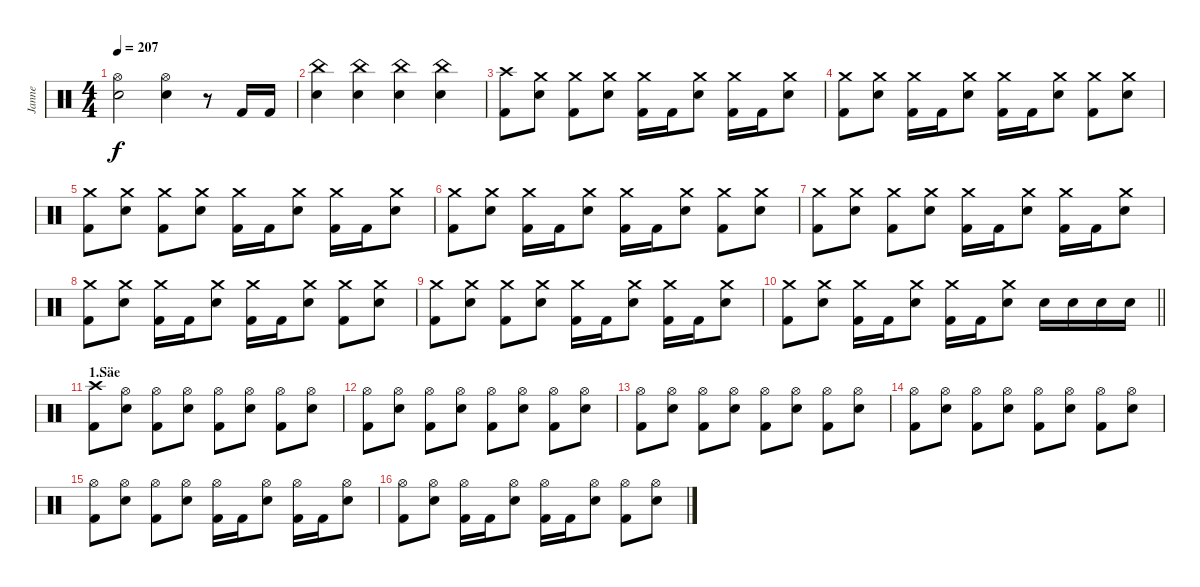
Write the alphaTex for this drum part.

\track ("Janne" "Janne") {instrument percussion}
\staff {score}
\articulation defaults
\ts (4 4)
\tempo 207
\clef neutral
\ks c
("Hi-Hat (open)" "Electric Snare (hit)").2{dy f} ("Hi-Hat (open)" "Electric Snare (hit)").4 r.8 "Kick (hit) 2".16 "Kick (hit) 2".16 |
("China (hit)" "Electric Snare (hit)").4 ("China (hit)" "Electric Snare (hit)").4 ("China (hit)" "Electric Snare (hit)").4 ("China (hit)" "Electric Snare (hit)").4 |
("Crash high (hit)" "Kick (hit) 2").8 ("Crash medium (hit)" "Electric Snare (hit)").8 ("Crash medium (hit)" "Kick (hit) 2").8 ("Crash medium (hit)" "Electric Snare (hit)").8 ("Crash medium (hit)" "Kick (hit) 2").16 "Kick (hit) 2".16 ("Crash medium (hit)" "Electric Snare (hit)").8 ("Crash medium (hit)" "Kick (hit) 2").16 "Kick (hit) 2".16 ("Crash medium (hit)" "Electric Snare (hit)").8 |
("Crash medium (hit)" "Kick (hit) 2").8 ("Crash medium (hit)" "Electric Snare (hit)").8 ("Crash medium (hit)" "Kick (hit) 2").16 "Kick (hit) 2".16 ("Crash medium (hit)" "Electric Snare (hit)").8 ("Crash medium (hit)" "Kick (hit) 2").16 "Kick (hit) 2".16 ("Crash medium (hit)" "Electric Snare (hit)").8 ("Crash medium (hit)" "Kick (hit) 2").8 ("Crash medium (hit)" "Electric Snare (hit)").8 |
("Crash medium (hit)" "Kick (hit) 2").8 ("Crash medium (hit)" "Electric Snare (hit)").8 ("Crash medium (hit)" "Kick (hit) 2").8 ("Crash medium (hit)" "Electric Snare (hit)").8 ("Crash medium (hit)" "Kick (hit) 2").16 "Kick (hit) 2".16 ("Crash medium (hit)" "Electric Snare (hit)").8 ("Crash medium (hit)" "Kick (hit) 2").16 "Kick (hit) 2".16 ("Crash medium (hit)" "Electric Snare (hit)").8 |
("Crash medium (hit)" "Kick (hit) 2").8 ("Crash medium (hit)" "Electric Snare (hit)").8 ("Crash medium (hit)" "Kick (hit) 2").16 "Kick (hit) 2".16 ("Crash medium (hit)" "Electric Snare (hit)").8 ("Crash medium (hit)" "Kick (hit) 2").16 "Kick (hit) 2".16 ("Crash medium (hit)" "Electric Snare (hit)").8 ("Crash medium (hit)" "Kick (hit) 2").8 ("Crash medium (hit)" "Electric Snare (hit)").8 |
("Crash medium (hit)" "Kick (hit) 2").8 ("Crash medium (hit)" "Electric Snare (hit)").8 ("Crash medium (hit)" "Kick (hit) 2").8 ("Crash medium (hit)" "Electric Snare (hit)").8 ("Crash medium (hit)" "Kick (hit) 2").16 "Kick (hit) 2".16 ("Crash medium (hit)" "Electric Snare (hit)").8 ("Crash medium (hit)" "Kick (hit) 2").16 "Kick (hit) 2".16 ("Crash medium (hit)" "Electric Snare (hit)").8 |
("Crash medium (hit)" "Kick (hit) 2").8 ("Crash medium (hit)" "Electric Snare (hit)").8 ("Crash medium (hit)" "Kick (hit) 2").16 "Kick (hit) 2".16 ("Crash medium (hit)" "Electric Snare (hit)").8 ("Crash medium (hit)" "Kick (hit) 2").16 "Kick (hit) 2".16 ("Crash medium (hit)" "Electric Snare (hit)").8 ("Crash medium (hit)" "Kick (hit) 2").8 ("Crash medium (hit)" "Electric Snare (hit)").8 |
("Crash medium (hit)" "Kick (hit) 2").8 ("Crash medium (hit)" "Electric Snare (hit)").8 ("Crash medium (hit)" "Kick (hit) 2").8 ("Crash medium (hit)" "Electric Snare (hit)").8 ("Crash medium (hit)" "Kick (hit) 2").16 "Kick (hit) 2".16 ("Crash medium (hit)" "Electric Snare (hit)").8 ("Crash medium (hit)" "Kick (hit) 2").16 "Kick (hit) 2".16 ("Crash medium (hit)" "Electric Snare (hit)").8 |
\barLineRight lightlight
("Crash medium (hit)" "Kick (hit) 2").8 ("Crash medium (hit)" "Electric Snare (hit)").8 ("Crash medium (hit)" "Kick (hit) 2").16 "Kick (hit) 2".16 ("Crash medium (hit)" "Electric Snare (hit)").8 ("Crash medium (hit)" "Kick (hit) 2").16 "Kick (hit) 2".16 ("Crash medium (hit)" "Electric Snare (hit)").8 "Electric Snare (hit)".16 "Electric Snare (hit)".16 "Electric Snare (hit)".16 "Electric Snare (hit)".16 |
\section ("" "1.Säe")
("Crash high (hit)" "Kick (hit) 2").8 ("Hi-Hat (open)" "Electric Snare (hit)").8 ("Hi-Hat (open)" "Kick (hit) 2").8 ("Hi-Hat (open)" "Electric Snare (hit)").8 ("Hi-Hat (open)" "Kick (hit) 2").8 ("Hi-Hat (open)" "Electric Snare (hit)").8 ("Hi-Hat (open)" "Kick (hit) 2").8 ("Hi-Hat (open)" "Electric Snare (hit)").8 |
("Hi-Hat (open)" "Kick (hit) 2").8 ("Hi-Hat (open)" "Electric Snare (hit)").8 ("Hi-Hat (open)" "Kick (hit) 2").8 ("Hi-Hat (open)" "Electric Snare (hit)").8 ("Hi-Hat (open)" "Kick (hit) 2").8 ("Hi-Hat (open)" "Electric Snare (hit)").8 ("Hi-Hat (open)" "Kick (hit) 2").8 ("Hi-Hat (open)" "Electric Snare (hit)").8 |
("Hi-Hat (open)" "Kick (hit) 2").8 ("Hi-Hat (open)" "Electric Snare (hit)").8 ("Hi-Hat (open)" "Kick (hit) 2").8 ("Hi-Hat (open)" "Electric Snare (hit)").8 ("Hi-Hat (open)" "Kick (hit) 2").8 ("Hi-Hat (open)" "Electric Snare (hit)").8 ("Hi-Hat (open)" "Kick (hit) 2").8 ("Hi-Hat (open)" "Electric Snare (hit)").8 |
("Hi-Hat (open)" "Kick (hit) 2").8 ("Hi-Hat (open)" "Electric Snare (hit)").8 ("Hi-Hat (open)" "Kick (hit) 2").8 ("Hi-Hat (open)" "Electric Snare (hit)").8 ("Hi-Hat (open)" "Kick (hit) 2").8 ("Hi-Hat (open)" "Electric Snare (hit)").8 ("Hi-Hat (open)" "Kick (hit) 2").8 ("Hi-Hat (open)" "Electric Snare (hit)").8 |
("Hi-Hat (open)" "Kick (hit) 2").8 ("Hi-Hat (open)" "Electric Snare (hit)").8 ("Hi-Hat (open)" "Kick (hit) 2").8 ("Hi-Hat (open)" "Electric Snare (hit)").8 ("Hi-Hat (open)" "Kick (hit) 2").16 "Kick (hit) 2".16 ("Hi-Hat (open)" "Electric Snare (hit)").8 ("Hi-Hat (open)" "Kick (hit) 2").16 "Kick (hit) 2".16 ("Hi-Hat (open)" "Electric Snare (hit)").8 |
("Hi-Hat (open)" "Kick (hit) 2").8 ("Hi-Hat (open)" "Electric Snare (hit)").8 ("Hi-Hat (open)" "Kick (hit) 2").16 "Kick (hit) 2".16 ("Hi-Hat (open)" "Electric Snare (hit)").8 ("Hi-Hat (open)" "Kick (hit) 2").16 "Kick (hit) 2".16 ("Hi-Hat (open)" "Electric Snare (hit)").8 ("Hi-Hat (open)" "Kick (hit) 2").8 ("Hi-Hat (open)" "Electric Snare (hit)").8
